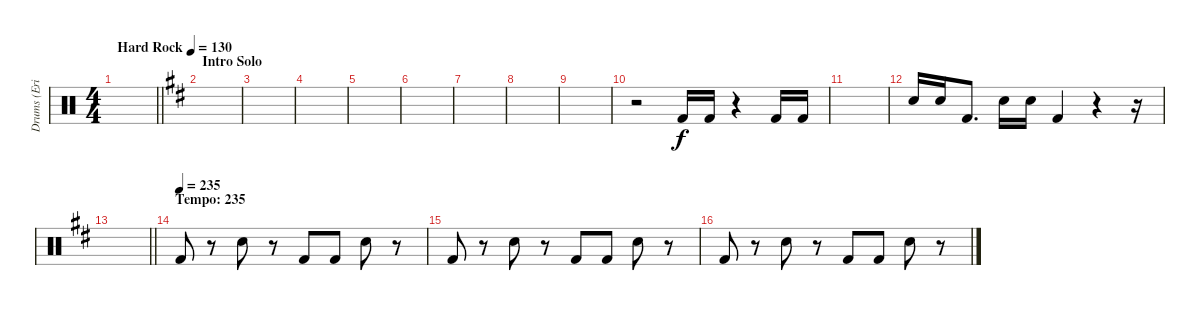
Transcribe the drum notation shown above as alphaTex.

\track ("Drums (Eric Carr)" "Drums (Eri") {instrument percussion}
\staff {score}
\articulation defaults
\ts (4 4)
\tempo (130 "Hard Rock")
\clef neutral
\barLineRight lightlight
\ks c
|
\section ("" "Intro Solo")
\ks d
|
|
|
|
|
|
|
|
r.2 "Kick (hit) 2".16 "Kick (hit) 2".16 r.4 "Kick (hit) 2".16 "Kick (hit) 2".16 |
|
"Snare (hit) 2".16 "Snare (hit) 2".16 "Kick (hit) 2".8{d} "Snare (hit) 2".16 "Snare (hit) 2".16 "Kick (hit) 2".4 r.4 r.16 |
\barLineRight lightlight
|
\section ("" "Tempo: 235")
\tempo (235)
"Kick (hit) 2".8 r.8 "Snare (hit) 2".8 r.8 "Kick (hit) 2".8 "Kick (hit) 2".8 "Snare (hit) 2".8 r.8 |
"Kick (hit) 2".8 r.8 "Snare (hit) 2".8 r.8 "Kick (hit) 2".8 "Kick (hit) 2".8 "Snare (hit) 2".8 r.8 |
"Kick (hit) 2".8 r.8 "Snare (hit) 2".8 r.8 "Kick (hit) 2".8 "Kick (hit) 2".8 "Snare (hit) 2".8 r.8
